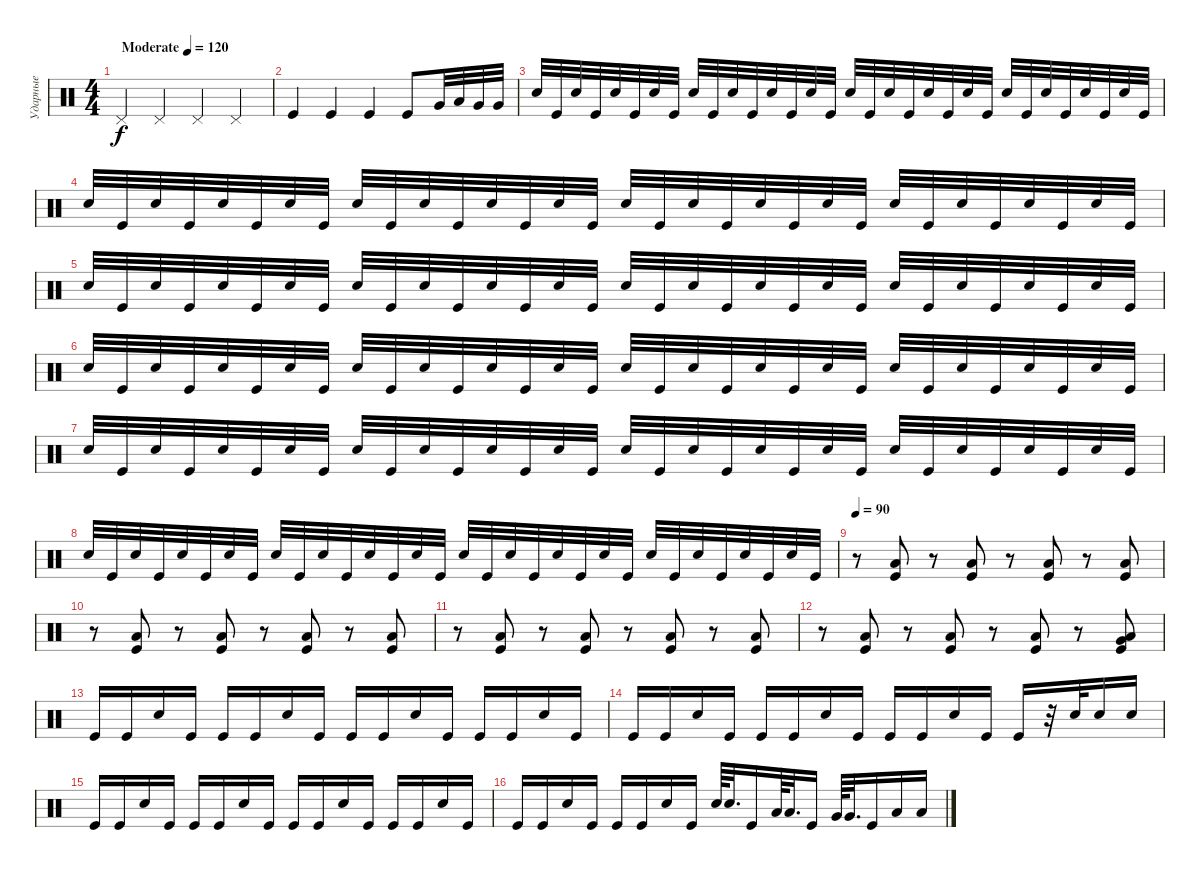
\track ("Ударные" "Ударные") {instrument percussion}
\staff {score}
\articulation defaults
\ts (4 4)
\tempo (120 "Moderate")
\clef neutral
\ks c "Pedal Hi-Hat (hit)".4{dy f} "Pedal Hi-Hat (hit)".4 "Pedal Hi-Hat (hit)".4 "Pedal Hi-Hat (hit)".4
|
"Kick (hit)".4 "Kick (hit)".4 "Kick (hit)".4 "Kick (hit)".8 "Very Low Tom (hit)".32 "Low Tom (hit)".32 "Very Low Tom (hit)".32 "Very Low Tom (hit)".32 |
"Snare (hit) 2".32 "Kick (hit)".32 "Snare (hit) 2".32 "Kick (hit)".32 "Snare (hit) 2".32 "Kick (hit)".32 "Snare (hit) 2".32 "Kick (hit)".32 "Snare (hit) 2".32 "Kick (hit)".32 "Snare (hit) 2".32 "Kick (hit)".32 "Snare (hit) 2".32 "Kick (hit)".32 "Snare (hit) 2".32 "Kick (hit)".32 "Snare (hit) 2".32 "Kick (hit)".32 "Snare (hit) 2".32 "Kick (hit)".32 "Snare (hit) 2".32 "Kick (hit)".32 "Snare (hit) 2".32 "Kick (hit)".32 "Snare (hit) 2".32 "Kick (hit)".32 "Snare (hit) 2".32 "Kick (hit)".32 "Snare (hit) 2".32 "Kick (hit)".32 "Snare (hit) 2".32 "Kick (hit)".32 |
"Snare (hit) 2".32 "Kick (hit)".32 "Snare (hit) 2".32 "Kick (hit)".32 "Snare (hit) 2".32 "Kick (hit)".32 "Snare (hit) 2".32 "Kick (hit)".32 "Snare (hit) 2".32 "Kick (hit)".32 "Snare (hit) 2".32 "Kick (hit)".32 "Snare (hit) 2".32 "Kick (hit)".32 "Snare (hit) 2".32 "Kick (hit)".32 "Snare (hit) 2".32 "Kick (hit)".32 "Snare (hit) 2".32 "Kick (hit)".32 "Snare (hit) 2".32 "Kick (hit)".32 "Snare (hit) 2".32 "Kick (hit)".32 "Snare (hit) 2".32 "Kick (hit)".32 "Snare (hit) 2".32 "Kick (hit)".32 "Snare (hit) 2".32 "Kick (hit)".32 "Snare (hit) 2".32 "Kick (hit)".32 |
"Snare (hit) 2".32 "Kick (hit)".32 "Snare (hit) 2".32 "Kick (hit)".32 "Snare (hit) 2".32 "Kick (hit)".32 "Snare (hit) 2".32 "Kick (hit)".32 "Snare (hit) 2".32 "Kick (hit)".32 "Snare (hit) 2".32 "Kick (hit)".32 "Snare (hit) 2".32 "Kick (hit)".32 "Snare (hit) 2".32 "Kick (hit)".32 "Snare (hit) 2".32 "Kick (hit)".32 "Snare (hit) 2".32 "Kick (hit)".32 "Snare (hit) 2".32 "Kick (hit)".32 "Snare (hit) 2".32 "Kick (hit)".32 "Snare (hit) 2".32 "Kick (hit)".32 "Snare (hit) 2".32 "Kick (hit)".32 "Snare (hit) 2".32 "Kick (hit)".32 "Snare (hit) 2".32 "Kick (hit)".32 |
"Snare (hit) 2".32 "Kick (hit)".32 "Snare (hit) 2".32 "Kick (hit)".32 "Snare (hit) 2".32 "Kick (hit)".32 "Snare (hit) 2".32 "Kick (hit)".32 "Snare (hit) 2".32 "Kick (hit)".32 "Snare (hit) 2".32 "Kick (hit)".32 "Snare (hit) 2".32 "Kick (hit)".32 "Snare (hit) 2".32 "Kick (hit)".32 "Snare (hit) 2".32 "Kick (hit)".32 "Snare (hit) 2".32 "Kick (hit)".32 "Snare (hit) 2".32 "Kick (hit)".32 "Snare (hit) 2".32 "Kick (hit)".32 "Snare (hit) 2".32 "Kick (hit)".32 "Snare (hit) 2".32 "Kick (hit)".32 "Snare (hit) 2".32 "Kick (hit)".32 "Snare (hit) 2".32 "Kick (hit)".32 |
"Snare (hit) 2".32 "Kick (hit)".32 "Snare (hit) 2".32 "Kick (hit)".32 "Snare (hit) 2".32 "Kick (hit)".32 "Snare (hit) 2".32 "Kick (hit)".32 "Snare (hit) 2".32 "Kick (hit)".32 "Snare (hit) 2".32 "Kick (hit)".32 "Snare (hit) 2".32 "Kick (hit)".32 "Snare (hit) 2".32 "Kick (hit)".32 "Snare (hit) 2".32 "Kick (hit)".32 "Snare (hit) 2".32 "Kick (hit)".32 "Snare (hit) 2".32 "Kick (hit)".32 "Snare (hit) 2".32 "Kick (hit)".32 "Snare (hit) 2".32 "Kick (hit)".32 "Snare (hit) 2".32 "Kick (hit)".32 "Snare (hit) 2".32 "Kick (hit)".32 "Snare (hit) 2".32 "Kick (hit)".32 |
"Snare (hit) 2".32 "Kick (hit)".32 "Snare (hit) 2".32 "Kick (hit)".32 "Snare (hit) 2".32 "Kick (hit)".32 "Snare (hit) 2".32 "Kick (hit)".32 "Snare (hit) 2".32 "Kick (hit)".32 "Snare (hit) 2".32 "Kick (hit)".32 "Snare (hit) 2".32 "Kick (hit)".32 "Snare (hit) 2".32 "Kick (hit)".32 "Snare (hit) 2".32 "Kick (hit)".32 "Snare (hit) 2".32 "Kick (hit)".32 "Snare (hit) 2".32 "Kick (hit)".32 "Snare (hit) 2".32 "Kick (hit)".32 "Snare (hit) 2".32 "Kick (hit)".32 "Snare (hit) 2".32 "Kick (hit)".32 "Snare (hit) 2".32 "Kick (hit)".32 "Snare (hit) 2".32 "Kick (hit)".32 |
\tempo 90
r.8 ("Low Floor Tom (hit)" "Kick (hit)").8 r.8 ("Low Floor Tom (hit)" "Kick (hit)").8 r.8 ("Low Floor Tom (hit)" "Kick (hit)").8 r.8 ("Low Floor Tom (hit)" "Kick (hit)").8 |
r.8 ("Low Floor Tom (hit)" "Kick (hit)").8 r.8 ("Low Floor Tom (hit)" "Kick (hit)").8 r.8 ("Low Floor Tom (hit)" "Kick (hit)").8 r.8 ("Low Floor Tom (hit)" "Kick (hit)").8 |
r.8 ("Low Floor Tom (hit)" "Kick (hit)").8 r.8 ("Low Floor Tom (hit)" "Kick (hit)").8 r.8 ("Low Floor Tom (hit)" "Kick (hit)").8 r.8 ("Low Floor Tom (hit)" "Kick (hit)").8 |
r.8 ("Low Floor Tom (hit)" "Kick (hit)").8 r.8 ("Low Floor Tom (hit)" "Kick (hit)").8 r.8 ("Low Floor Tom (hit)" "Kick (hit)").8 r.8 ("Very Low Tom (hit)" "Low Floor Tom (hit)" "Kick (hit)").8 |
"Kick (hit)".16 "Kick (hit)".16 "Snare (hit) 2".16 "Kick (hit)".16 "Kick (hit)".16 "Kick (hit)".16 "Snare (hit) 2".16 "Kick (hit)".16 "Kick (hit)".16 "Kick (hit)".16 "Snare (hit) 2".16 "Kick (hit)".16 "Kick (hit)".16 "Kick (hit)".16 "Snare (hit) 2".16 "Kick (hit)".16 |
"Kick (hit)".16 "Kick (hit)".16 "Snare (hit) 2".16 "Kick (hit)".16 "Kick (hit)".16 "Kick (hit)".16 "Snare (hit) 2".16 "Kick (hit)".16 "Kick (hit)".16 "Kick (hit)".16 "Snare (hit) 2".16 "Kick (hit)".16 "Kick (hit)".16 r.32 "Snare (hit) 2".32 "Snare (hit) 2".16 "Snare (hit) 2".16 |
"Kick (hit)".16 "Kick (hit)".16 "Snare (hit) 2".16 "Kick (hit)".16 "Kick (hit)".16 "Kick (hit)".16 "Snare (hit) 2".16 "Kick (hit)".16 "Kick (hit)".16 "Kick (hit)".16 "Snare (hit) 2".16 "Kick (hit)".16 "Kick (hit)".16 "Kick (hit)".16 "Snare (hit) 2".16 "Kick (hit)".16 |
"Kick (hit)".16 "Kick (hit)".16 "Snare (hit) 2".16 "Kick (hit)".16 "Kick (hit)".16 "Kick (hit)".16 "Snare (hit) 2".16 "Kick (hit)".16 "Snare (hit) 2".64 "Snare (hit) 2".32{d} "Kick (hit)".16 "Low Tom (hit)".64 "Low Tom (hit)".32{d} "Kick (hit)".16 "Very Low Tom (hit)".64 "Very Low Tom (hit)".32{d} "Kick (hit)".16 "Low Floor Tom (hit)".16 "Low Floor Tom (hit)".16
